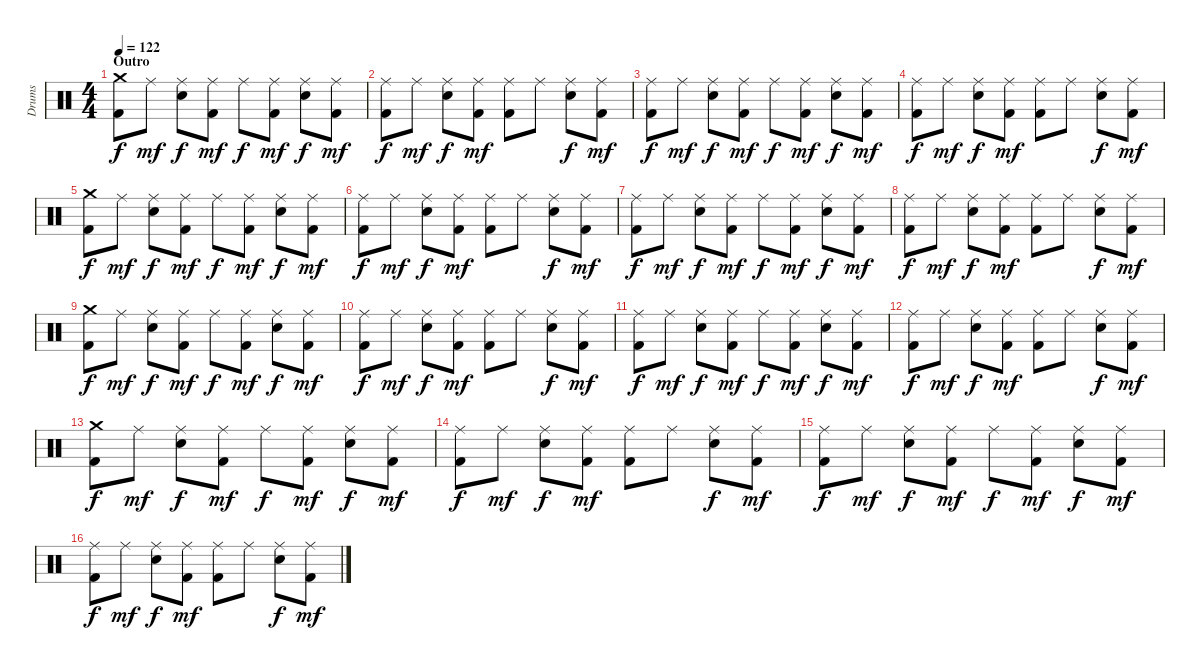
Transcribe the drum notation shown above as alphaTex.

\track ("Drums" "Drums") {instrument percussion}
\staff {score}
\articulation defaults
\ts (4 4)
\section ("" "Outro")
\tempo 122
\clef neutral
\ks c
("Crash medium (hit)" "Kick (hit) 2").8{dy f} "Ride (middle)".8{dy mf} ("Ride (middle)" "Snare (hit) 2").8{dy f} ("Ride (middle)" "Kick (hit) 2").8{dy mf} "Ride (middle)".8{dy f} ("Ride (middle)" "Kick (hit) 2").8{dy mf} ("Ride (middle)" "Snare (hit) 2").8{dy f} ("Ride (middle)" "Kick (hit) 2").8{dy mf} |
("Ride (middle)" "Kick (hit) 2").8{dy f} "Ride (middle)".8{dy mf} ("Ride (middle)" "Snare (hit) 2").8{dy f} ("Ride (middle)" "Kick (hit) 2").8{dy mf} ("Ride (middle)" "Kick (hit) 2").8 "Ride (middle)".8 ("Ride (middle)" "Snare (hit) 2").8{dy f} ("Ride (middle)" "Kick (hit) 2").8{dy mf} |
("Ride (middle)" "Kick (hit) 2").8{dy f} "Ride (middle)".8{dy mf} ("Ride (middle)" "Snare (hit) 2").8{dy f} ("Ride (middle)" "Kick (hit) 2").8{dy mf} "Ride (middle)".8{dy f} ("Ride (middle)" "Kick (hit) 2").8{dy mf} ("Ride (middle)" "Snare (hit) 2").8{dy f} ("Ride (middle)" "Kick (hit) 2").8{dy mf} |
("Ride (middle)" "Kick (hit) 2").8{dy f} "Ride (middle)".8{dy mf} ("Ride (middle)" "Snare (hit) 2").8{dy f} ("Ride (middle)" "Kick (hit) 2").8{dy mf} ("Ride (middle)" "Kick (hit) 2").8 "Ride (middle)".8 ("Ride (middle)" "Snare (hit) 2").8{dy f} ("Ride (middle)" "Kick (hit) 2").8{dy mf} |
("Crash medium (hit)" "Kick (hit) 2").8{dy f} "Ride (middle)".8{dy mf} ("Ride (middle)" "Snare (hit) 2").8{dy f} ("Ride (middle)" "Kick (hit) 2").8{dy mf} "Ride (middle)".8{dy f} ("Ride (middle)" "Kick (hit) 2").8{dy mf} ("Ride (middle)" "Snare (hit) 2").8{dy f} ("Ride (middle)" "Kick (hit) 2").8{dy mf} |
("Ride (middle)" "Kick (hit) 2").8{dy f} "Ride (middle)".8{dy mf} ("Ride (middle)" "Snare (hit) 2").8{dy f} ("Ride (middle)" "Kick (hit) 2").8{dy mf} ("Ride (middle)" "Kick (hit) 2").8 "Ride (middle)".8 ("Ride (middle)" "Snare (hit) 2").8{dy f} ("Ride (middle)" "Kick (hit) 2").8{dy mf} |
("Ride (middle)" "Kick (hit) 2").8{dy f} "Ride (middle)".8{dy mf} ("Ride (middle)" "Snare (hit) 2").8{dy f} ("Ride (middle)" "Kick (hit) 2").8{dy mf} "Ride (middle)".8{dy f} ("Ride (middle)" "Kick (hit) 2").8{dy mf} ("Ride (middle)" "Snare (hit) 2").8{dy f} ("Ride (middle)" "Kick (hit) 2").8{dy mf} |
("Ride (middle)" "Kick (hit) 2").8{dy f} "Ride (middle)".8{dy mf} ("Ride (middle)" "Snare (hit) 2").8{dy f} ("Ride (middle)" "Kick (hit) 2").8{dy mf} ("Ride (middle)" "Kick (hit) 2").8 "Ride (middle)".8 ("Ride (middle)" "Snare (hit) 2").8{dy f} ("Ride (middle)" "Kick (hit) 2").8{dy mf} |
("Crash medium (hit)" "Kick (hit) 2").8{dy f} "Ride (middle)".8{dy mf} ("Ride (middle)" "Snare (hit) 2").8{dy f} ("Ride (middle)" "Kick (hit) 2").8{dy mf} "Ride (middle)".8{dy f} ("Ride (middle)" "Kick (hit) 2").8{dy mf} ("Ride (middle)" "Snare (hit) 2").8{dy f} ("Ride (middle)" "Kick (hit) 2").8{dy mf} |
("Ride (middle)" "Kick (hit) 2").8{dy f} "Ride (middle)".8{dy mf} ("Ride (middle)" "Snare (hit) 2").8{dy f} ("Ride (middle)" "Kick (hit) 2").8{dy mf} ("Ride (middle)" "Kick (hit) 2").8 "Ride (middle)".8 ("Ride (middle)" "Snare (hit) 2").8{dy f} ("Ride (middle)" "Kick (hit) 2").8{dy mf} |
("Ride (middle)" "Kick (hit) 2").8{dy f} "Ride (middle)".8{dy mf} ("Ride (middle)" "Snare (hit) 2").8{dy f} ("Ride (middle)" "Kick (hit) 2").8{dy mf} "Ride (middle)".8{dy f} ("Ride (middle)" "Kick (hit) 2").8{dy mf} ("Ride (middle)" "Snare (hit) 2").8{dy f} ("Ride (middle)" "Kick (hit) 2").8{dy mf} |
("Ride (middle)" "Kick (hit) 2").8{dy f} "Ride (middle)".8{dy mf} ("Ride (middle)" "Snare (hit) 2").8{dy f} ("Ride (middle)" "Kick (hit) 2").8{dy mf} ("Ride (middle)" "Kick (hit) 2").8 "Ride (middle)".8 ("Ride (middle)" "Snare (hit) 2").8{dy f} ("Ride (middle)" "Kick (hit) 2").8{dy mf} |
("Crash medium (hit)" "Kick (hit) 2").8{dy f} "Ride (middle)".8{dy mf} ("Ride (middle)" "Snare (hit) 2").8{dy f} ("Ride (middle)" "Kick (hit) 2").8{dy mf} "Ride (middle)".8{dy f} ("Ride (middle)" "Kick (hit) 2").8{dy mf} ("Ride (middle)" "Snare (hit) 2").8{dy f} ("Ride (middle)" "Kick (hit) 2").8{dy mf} |
("Ride (middle)" "Kick (hit) 2").8{dy f} "Ride (middle)".8{dy mf} ("Ride (middle)" "Snare (hit) 2").8{dy f} ("Ride (middle)" "Kick (hit) 2").8{dy mf} ("Ride (middle)" "Kick (hit) 2").8 "Ride (middle)".8 ("Ride (middle)" "Snare (hit) 2").8{dy f} ("Ride (middle)" "Kick (hit) 2").8{dy mf} |
("Ride (middle)" "Kick (hit) 2").8{dy f} "Ride (middle)".8{dy mf} ("Ride (middle)" "Snare (hit) 2").8{dy f} ("Ride (middle)" "Kick (hit) 2").8{dy mf} "Ride (middle)".8{dy f} ("Ride (middle)" "Kick (hit) 2").8{dy mf} ("Ride (middle)" "Snare (hit) 2").8{dy f} ("Ride (middle)" "Kick (hit) 2").8{dy mf} |
("Ride (middle)" "Kick (hit) 2").8{dy f} "Ride (middle)".8{dy mf} ("Ride (middle)" "Snare (hit) 2").8{dy f} ("Ride (middle)" "Kick (hit) 2").8{dy mf} ("Ride (middle)" "Kick (hit) 2").8 "Ride (middle)".8 ("Ride (middle)" "Snare (hit) 2").8{dy f} ("Ride (middle)" "Kick (hit) 2").8{dy mf}
